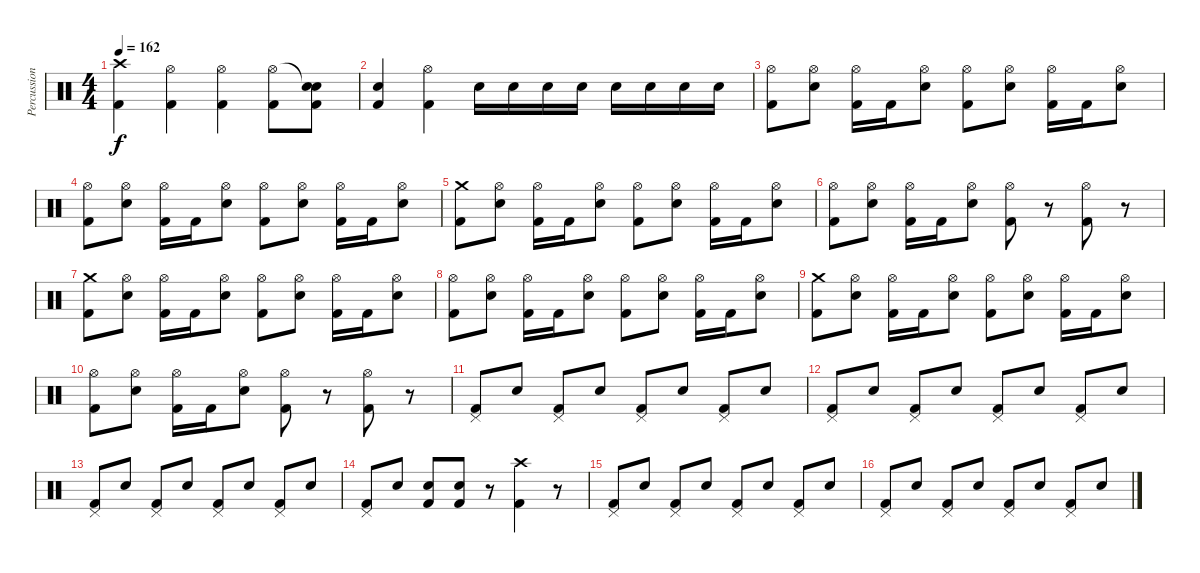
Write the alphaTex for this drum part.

\track ("Percussions" "Percussion") {instrument percussion}
\staff {score}
\articulation defaults
\ts (4 4)
\tempo 162
\clef neutral
\ks c
("Kick (hit) 2" "Crash high (hit)").4{dy f} ("Kick (hit) 2" "Hi-Hat (open)").4 ("Kick (hit) 2" "Hi-Hat (open)").4 ("Kick (hit) 2" "Hi-Hat (open)").8 ("Electric Snare (hit)" "Electric Snare (hit)"{t} "Kick (hit) 2").8 |
("Electric Snare (hit)" "Kick (hit) 2").4 ("Kick (hit) 2" "Hi-Hat (open)").4 "Electric Snare (hit)".16 "Electric Snare (hit)".16 "Electric Snare (hit)".16 "Electric Snare (hit)".16 "Electric Snare (hit)".16 "Electric Snare (hit)".16 "Electric Snare (hit)".16 "Electric Snare (hit)".16 |
("Kick (hit) 2" "Hi-Hat (open)").8 ("Electric Snare (hit)" "Hi-Hat (open)").8 ("Kick (hit) 2" "Hi-Hat (open)").16 "Kick (hit) 2".16 ("Electric Snare (hit)" "Hi-Hat (open)").8 ("Kick (hit) 2" "Hi-Hat (open)").8 ("Electric Snare (hit)" "Hi-Hat (open)").8 ("Kick (hit) 2" "Hi-Hat (open)").16 "Kick (hit) 2".16 ("Electric Snare (hit)" "Hi-Hat (open)").8 |
("Kick (hit) 2" "Hi-Hat (open)").8 ("Electric Snare (hit)" "Hi-Hat (open)").8 ("Kick (hit) 2" "Hi-Hat (open)").16 "Kick (hit) 2".16 ("Electric Snare (hit)" "Hi-Hat (open)").8 ("Kick (hit) 2" "Hi-Hat (open)").8 ("Electric Snare (hit)" "Hi-Hat (open)").8 ("Kick (hit) 2" "Hi-Hat (open)").16 "Kick (hit) 2".16 ("Electric Snare (hit)" "Hi-Hat (open)").8 |
("Kick (hit) 2" "Crash medium (hit)").8 ("Electric Snare (hit)" "Hi-Hat (open)").8 ("Kick (hit) 2" "Hi-Hat (open)").16 "Kick (hit) 2".16 ("Electric Snare (hit)" "Hi-Hat (open)").8 ("Kick (hit) 2" "Hi-Hat (open)").8 ("Electric Snare (hit)" "Hi-Hat (open)").8 ("Kick (hit) 2" "Hi-Hat (open)").16 "Kick (hit) 2".16 ("Electric Snare (hit)" "Hi-Hat (open)").8 |
("Kick (hit) 2" "Hi-Hat (open)").8 ("Electric Snare (hit)" "Hi-Hat (open)").8 ("Kick (hit) 2" "Hi-Hat (open)").16 "Kick (hit) 2".16 ("Electric Snare (hit)" "Hi-Hat (open)").8 ("Kick (hit) 2" "Hi-Hat (open)").8 r.8 ("Kick (hit) 2" "Hi-Hat (open)").8 r.8 |
("Kick (hit) 2" "Crash medium (hit)").8 ("Electric Snare (hit)" "Hi-Hat (open)").8 ("Kick (hit) 2" "Hi-Hat (open)").16 "Kick (hit) 2".16 ("Electric Snare (hit)" "Hi-Hat (open)").8 ("Kick (hit) 2" "Hi-Hat (open)").8 ("Electric Snare (hit)" "Hi-Hat (open)").8 ("Kick (hit) 2" "Hi-Hat (open)").16 "Kick (hit) 2".16 ("Electric Snare (hit)" "Hi-Hat (open)").8 |
("Kick (hit) 2" "Hi-Hat (open)").8 ("Electric Snare (hit)" "Hi-Hat (open)").8 ("Kick (hit) 2" "Hi-Hat (open)").16 "Kick (hit) 2".16 ("Electric Snare (hit)" "Hi-Hat (open)").8 ("Kick (hit) 2" "Hi-Hat (open)").8 ("Electric Snare (hit)" "Hi-Hat (open)").8 ("Kick (hit) 2" "Hi-Hat (open)").16 "Kick (hit) 2".16 ("Electric Snare (hit)" "Hi-Hat (open)").8 |
("Kick (hit) 2" "Crash medium (hit)").8 ("Electric Snare (hit)" "Hi-Hat (open)").8 ("Kick (hit) 2" "Hi-Hat (open)").16 "Kick (hit) 2".16 ("Electric Snare (hit)" "Hi-Hat (open)").8 ("Kick (hit) 2" "Hi-Hat (open)").8 ("Electric Snare (hit)" "Hi-Hat (open)").8 ("Kick (hit) 2" "Hi-Hat (open)").16 "Kick (hit) 2".16 ("Electric Snare (hit)" "Hi-Hat (open)").8 |
("Kick (hit) 2" "Hi-Hat (open)").8 ("Electric Snare (hit)" "Hi-Hat (open)").8 ("Kick (hit) 2" "Hi-Hat (open)").16 "Kick (hit) 2".16 ("Electric Snare (hit)" "Hi-Hat (open)").8 ("Kick (hit) 2" "Hi-Hat (open)").8 r.8 ("Kick (hit) 2" "Hi-Hat (open)").8 r.8 |
("Kick (hit) 2" "Pedal Hi-Hat (hit)").8 "Electric Snare (hit)".8 ("Kick (hit) 2" "Pedal Hi-Hat (hit)").8 "Electric Snare (hit)".8 ("Kick (hit) 2" "Pedal Hi-Hat (hit)").8 "Electric Snare (hit)".8 ("Kick (hit) 2" "Pedal Hi-Hat (hit)").8 "Electric Snare (hit)".8 |
("Kick (hit) 2" "Pedal Hi-Hat (hit)").8 "Electric Snare (hit)".8 ("Kick (hit) 2" "Pedal Hi-Hat (hit)").8 "Electric Snare (hit)".8 ("Kick (hit) 2" "Pedal Hi-Hat (hit)").8 "Electric Snare (hit)".8 ("Kick (hit) 2" "Pedal Hi-Hat (hit)").8 "Electric Snare (hit)".8 |
("Kick (hit) 2" "Pedal Hi-Hat (hit)").8 "Electric Snare (hit)".8 ("Kick (hit) 2" "Pedal Hi-Hat (hit)").8 "Electric Snare (hit)".8 ("Kick (hit) 2" "Pedal Hi-Hat (hit)").8 "Electric Snare (hit)".8 ("Kick (hit) 2" "Pedal Hi-Hat (hit)").8 "Electric Snare (hit)".8 |
("Kick (hit) 2" "Pedal Hi-Hat (hit)").8 "Electric Snare (hit)".8 ("Kick (hit) 2" "Electric Snare (hit)").8 ("Kick (hit) 2" "Electric Snare (hit)").8 r.8 ("Kick (hit) 2" "Crash high (hit)").4 r.8 |
("Kick (hit) 2" "Pedal Hi-Hat (hit)").8 "Electric Snare (hit)".8 ("Kick (hit) 2" "Pedal Hi-Hat (hit)").8 "Electric Snare (hit)".8 ("Kick (hit) 2" "Pedal Hi-Hat (hit)").8 "Electric Snare (hit)".8 ("Kick (hit) 2" "Pedal Hi-Hat (hit)").8 "Electric Snare (hit)".8 |
("Kick (hit) 2" "Pedal Hi-Hat (hit)").8 "Electric Snare (hit)".8 ("Kick (hit) 2" "Pedal Hi-Hat (hit)").8 "Electric Snare (hit)".8 ("Kick (hit) 2" "Pedal Hi-Hat (hit)").8 "Electric Snare (hit)".8 ("Kick (hit) 2" "Pedal Hi-Hat (hit)").8 "Electric Snare (hit)".8
